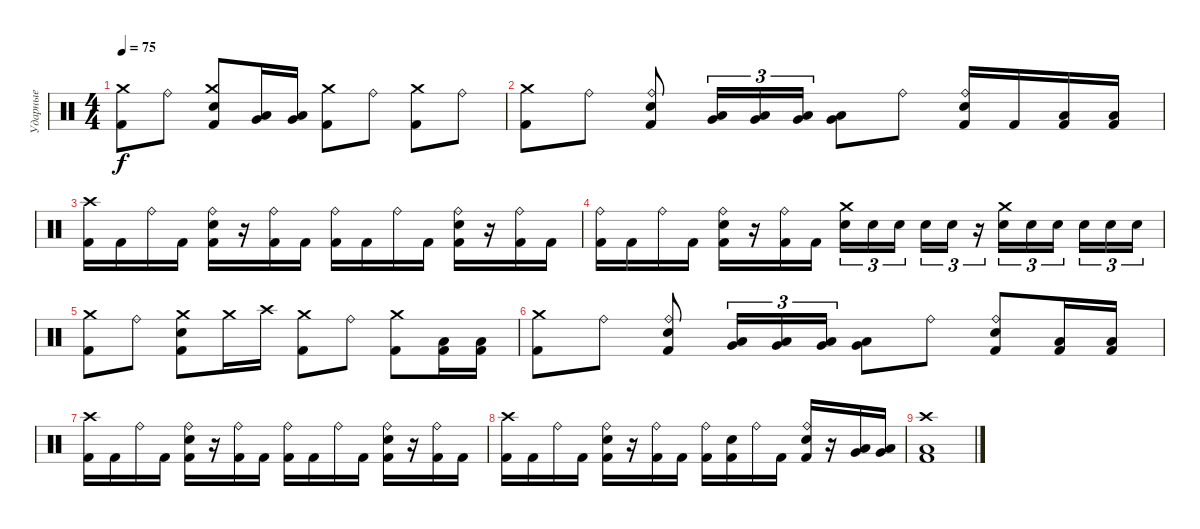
\track ("Ударные" "Ударные") {instrument percussion}
\staff {score}
\articulation defaults
\ts (4 4)
\tempo 75
\clef neutral
\ks c
("Kick (hit) 2" "Crash medium (hit)").8{dy f} "Ride (bell)".8 ("Kick (hit) 2" "Snare (hit) 2" "Crash medium (hit)").8 ("Very Low Tom (hit)" "Low Floor Tom (hit)").16 ("Very Low Tom (hit)" "Low Floor Tom (hit)").16 ("Kick (hit) 2" "Crash medium (hit)").8 "Ride (bell)".8 ("Kick (hit) 2" "Crash medium (hit)").8 "Ride (bell)".8 |
("Kick (hit) 2" "Crash medium (hit)").8 "Ride (bell)".8 ("Kick (hit) 2" "Snare (hit) 2" "Ride (bell)").8 ("Very Low Tom (hit)" "Low Floor Tom (hit)").16{tu (3 2)} ("Very Low Tom (hit)" "Low Floor Tom (hit)").16{tu (3 2)} ("Very Low Tom (hit)" "Low Floor Tom (hit)").16{tu (3 2)} ("Very Low Tom (hit)" "Low Floor Tom (hit)").8 "Ride (bell)".8 ("Kick (hit) 2" "Snare (hit) 2" "Ride (bell)").16 "Kick (hit) 2".16 ("Kick (hit) 2" "Low Floor Tom (hit)").16 ("Kick (hit) 2" "Low Floor Tom (hit)").16 |
("Kick (hit) 2" "Crash high (hit)").16 "Kick (hit) 2".16 "Ride (bell)".16 "Kick (hit) 2".16 ("Kick (hit) 2" "Snare (hit) 2" "Ride (bell)").16 r.16 ("Kick (hit) 2" "Ride (bell)").16 "Kick (hit) 2".16 ("Kick (hit) 2" "Ride (bell)").16 "Kick (hit) 2".16 "Ride (bell)".16 "Kick (hit) 2".16 ("Kick (hit) 2" "Snare (hit) 2" "Ride (bell)").16 r.16 ("Kick (hit) 2" "Ride (bell)").16 "Kick (hit) 2".16 |
("Kick (hit) 2" "Ride (bell)").16 "Kick (hit) 2".16 "Ride (bell)".16 "Kick (hit) 2".16 ("Kick (hit) 2" "Snare (hit) 2" "Ride (bell)").16 r.16 ("Kick (hit) 2" "Ride (bell)").16 "Kick (hit) 2".16 ("Snare (hit) 2" "Crash medium (hit)").16{tu (3 2)} "Snare (hit) 2".16{tu (3 2)} "Snare (hit) 2".16{tu (3 2) beam splitsecondary} "Snare (hit) 2".16{tu (3 2)} "Snare (hit) 2".16{tu (3 2)} r.16{tu (3 2)} ("Snare (hit) 2" "Crash medium (hit)").16{tu (3 2)} "Snare (hit) 2".16{tu (3 2)} "Snare (hit) 2".16{tu (3 2) beam splitsecondary} "Snare (hit) 2".16{tu (3 2)} "Snare (hit) 2".16{tu (3 2)} "Snare (hit) 2".16{tu (3 2)} |
("Kick (hit) 2" "Crash medium (hit)").8 "Ride (bell)".8 ("Kick (hit) 2" "Snare (hit) 2" "Crash medium (hit)").8 "Crash medium (hit)".16 "Crash high (hit)".16 ("Kick (hit) 2" "Crash medium (hit)").8 "Ride (bell)".8 ("Kick (hit) 2" "Crash medium (hit)").8 ("Kick (hit) 2" "Low Floor Tom (hit)").16 ("Kick (hit) 2" "Low Floor Tom (hit)").16 |
("Kick (hit) 2" "Crash medium (hit)").8 "Ride (bell)".8 ("Kick (hit) 2" "Snare (hit) 2" "Ride (bell)").8 ("Very Low Tom (hit)" "Low Floor Tom (hit)").16{tu (3 2)} ("Very Low Tom (hit)" "Low Floor Tom (hit)").16{tu (3 2)} ("Very Low Tom (hit)" "Low Floor Tom (hit)").16{tu (3 2)} ("Very Low Tom (hit)" "Low Floor Tom (hit)").8 "Ride (bell)".8 ("Kick (hit) 2" "Snare (hit) 2" "Ride (bell)").8 ("Kick (hit) 2" "Low Floor Tom (hit)").16 ("Kick (hit) 2" "Low Floor Tom (hit)").16 |
("Kick (hit) 2" "Crash high (hit)").16 "Kick (hit) 2".16 "Ride (bell)".16 "Kick (hit) 2".16 ("Kick (hit) 2" "Snare (hit) 2" "Ride (bell)").16 r.16 ("Kick (hit) 2" "Ride (bell)").16 "Kick (hit) 2".16 ("Kick (hit) 2" "Ride (bell)").16 "Kick (hit) 2".16 "Ride (bell)".16 "Kick (hit) 2".16 ("Kick (hit) 2" "Snare (hit) 2" "Ride (bell)").16 r.16 ("Kick (hit) 2" "Ride (bell)").16 "Kick (hit) 2".16 |
("Kick (hit) 2" "Crash high (hit)").16 "Kick (hit) 2".16 "Ride (bell)".16 "Kick (hit) 2".16 ("Kick (hit) 2" "Snare (hit) 2" "Ride (bell)").16 r.16 ("Kick (hit) 2" "Ride (bell)").16 "Kick (hit) 2".16 ("Kick (hit) 2" "Ride (bell)").16 ("Kick (hit) 2" "Snare (hit) 2").16 "Ride (bell)".16 "Kick (hit) 2".16 ("Kick (hit) 2" "Snare (hit) 2" "Ride (bell)").16 r.16 ("Very Low Tom (hit)" "Low Floor Tom (hit)").16 ("Very Low Tom (hit)" "Low Floor Tom (hit)").16 |
("Kick (hit) 2" "Low Floor Tom (hit)" "Crash high (hit)").1
